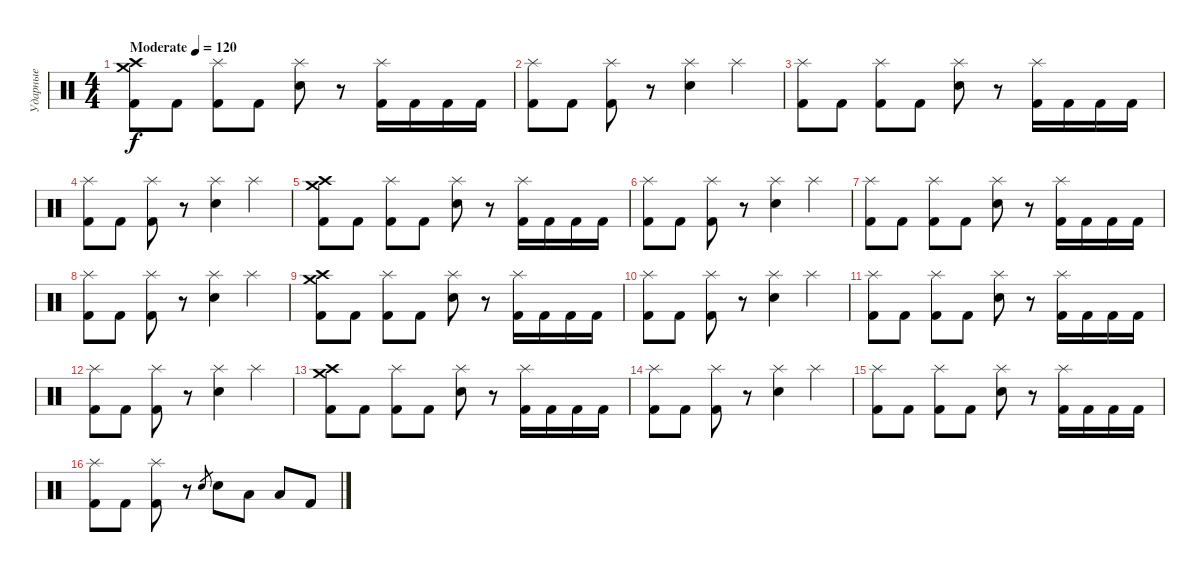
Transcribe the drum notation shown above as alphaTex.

\track ("Ударные" "Ударные") {instrument percussion}
\staff {score}
\articulation defaults
\ts (4 4)
\tempo (120 "Moderate")
\clef neutral
\ks c
("Crash medium (hit)" "Crash high (hit)" "Kick (hit) 2").8{dy f} "Kick (hit) 2".8 ("Splash (hit)" "Kick (hit) 2").8 "Kick (hit) 2".8 ("Splash (hit)" "Electric Snare (hit)").8 r.8 ("Splash (hit)" "Kick (hit) 2").16 "Kick (hit) 2".16 "Kick (hit) 2".16 "Kick (hit) 2".16 |
("Splash (hit)" "Kick (hit) 2").8 "Kick (hit) 2".8 ("Splash (hit)" "Kick (hit) 2").8 r.8 ("Splash (hit)" "Electric Snare (hit)").4 "Splash (hit)".4 |
("Splash (hit)" "Kick (hit) 2").8 "Kick (hit) 2".8 ("Splash (hit)" "Kick (hit) 2").8 "Kick (hit) 2".8 ("Splash (hit)" "Electric Snare (hit)").8 r.8 ("Splash (hit)" "Kick (hit) 2").16 "Kick (hit) 2".16 "Kick (hit) 2".16 "Kick (hit) 2".16 |
("Splash (hit)" "Kick (hit) 2").8 "Kick (hit) 2".8 ("Splash (hit)" "Kick (hit) 2").8 r.8 ("Splash (hit)" "Electric Snare (hit)").4 "Splash (hit)".4 |
("Crash medium (hit)" "Crash high (hit)" "Kick (hit) 2").8 "Kick (hit) 2".8 ("Splash (hit)" "Kick (hit) 2").8 "Kick (hit) 2".8 ("Splash (hit)" "Electric Snare (hit)").8 r.8 ("Splash (hit)" "Kick (hit) 2").16 "Kick (hit) 2".16 "Kick (hit) 2".16 "Kick (hit) 2".16 |
("Splash (hit)" "Kick (hit) 2").8 "Kick (hit) 2".8 ("Splash (hit)" "Kick (hit) 2").8 r.8 ("Splash (hit)" "Electric Snare (hit)").4 "Splash (hit)".4 |
("Splash (hit)" "Kick (hit) 2").8 "Kick (hit) 2".8 ("Splash (hit)" "Kick (hit) 2").8 "Kick (hit) 2".8 ("Splash (hit)" "Electric Snare (hit)").8 r.8 ("Splash (hit)" "Kick (hit) 2").16 "Kick (hit) 2".16 "Kick (hit) 2".16 "Kick (hit) 2".16 |
("Splash (hit)" "Kick (hit) 2").8 "Kick (hit) 2".8 ("Splash (hit)" "Kick (hit) 2").8 r.8 ("Splash (hit)" "Electric Snare (hit)").4 "Splash (hit)".4 |
("Crash medium (hit)" "Crash high (hit)" "Kick (hit) 2").8 "Kick (hit) 2".8 ("Splash (hit)" "Kick (hit) 2").8 "Kick (hit) 2".8 ("Splash (hit)" "Electric Snare (hit)").8 r.8 ("Splash (hit)" "Kick (hit) 2").16 "Kick (hit) 2".16 "Kick (hit) 2".16 "Kick (hit) 2".16 |
("Splash (hit)" "Kick (hit) 2").8 "Kick (hit) 2".8 ("Splash (hit)" "Kick (hit) 2").8 r.8 ("Splash (hit)" "Electric Snare (hit)").4 "Splash (hit)".4 |
("Splash (hit)" "Kick (hit) 2").8 "Kick (hit) 2".8 ("Splash (hit)" "Kick (hit) 2").8 "Kick (hit) 2".8 ("Splash (hit)" "Electric Snare (hit)").8 r.8 ("Splash (hit)" "Kick (hit) 2").16 "Kick (hit) 2".16 "Kick (hit) 2".16 "Kick (hit) 2".16 |
("Splash (hit)" "Kick (hit) 2").8 "Kick (hit) 2".8 ("Splash (hit)" "Kick (hit) 2").8 r.8 ("Splash (hit)" "Electric Snare (hit)").4 "Splash (hit)".4 |
("Crash medium (hit)" "Crash high (hit)" "Kick (hit) 2").8 "Kick (hit) 2".8 ("Splash (hit)" "Kick (hit) 2").8 "Kick (hit) 2".8 ("Splash (hit)" "Electric Snare (hit)").8 r.8 ("Splash (hit)" "Kick (hit) 2").16 "Kick (hit) 2".16 "Kick (hit) 2".16 "Kick (hit) 2".16 |
("Splash (hit)" "Kick (hit) 2").8 "Kick (hit) 2".8 ("Splash (hit)" "Kick (hit) 2").8 r.8 ("Splash (hit)" "Electric Snare (hit)").4 "Splash (hit)".4 |
("Splash (hit)" "Kick (hit) 2").8 "Kick (hit) 2".8 ("Splash (hit)" "Kick (hit) 2").8 "Kick (hit) 2".8 ("Splash (hit)" "Electric Snare (hit)").8 r.8 ("Splash (hit)" "Kick (hit) 2").16 "Kick (hit) 2".16 "Kick (hit) 2".16 "Kick (hit) 2".16 |
("Splash (hit)" "Kick (hit) 2").8 "Kick (hit) 2".8 ("Splash (hit)" "Kick (hit) 2").8 r.8 "Electric Snare (hit)".8{gr} "Electric Snare (hit)".8 "Low Tom (hit)".8 "Low Floor Tom (hit)".8 "Kick (hit) 2".8
